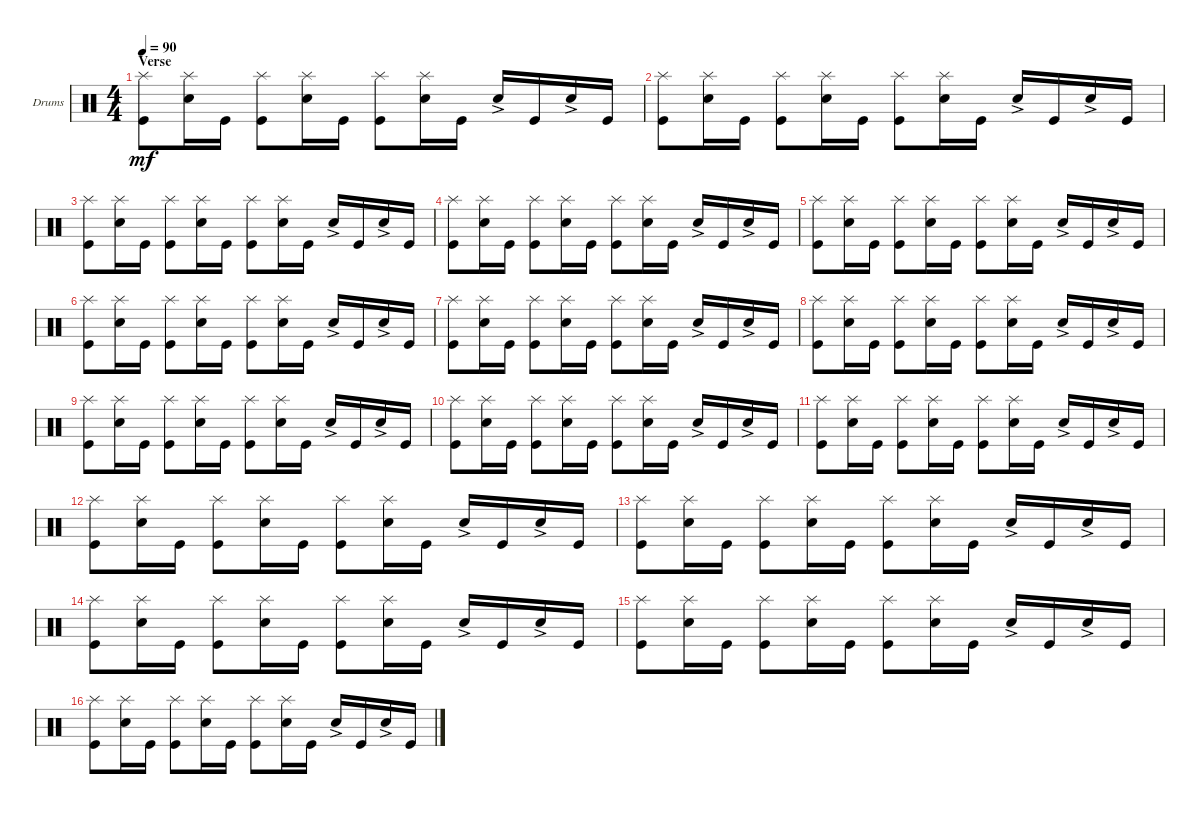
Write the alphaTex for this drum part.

\defaultSystemsLayout 4
\bracketExtendMode groupsimilarinstruments
\firstSystemTrackNameOrientation horizontal
\otherSystemsTrackNameOrientation horizontal
\track ("Drumkit" "Drums") {instrument percussion}
\staff {score}
\articulation defaults
\ts (4 4)
\section ("" "Verse")
\tempo 90
\clef neutral
\ks c
("Kick (hit)" "Splash (hit)").8{dy mf} ("Snare (hit) 2" "Splash (hit)").16 "Kick (hit)".16 ("Kick (hit)" "Splash (hit)").8 ("Snare (hit) 2" "Splash (hit)").16 "Kick (hit)".16 ("Kick (hit)" "Splash (hit)").8 ("Snare (hit) 2" "Splash (hit)").16 "Kick (hit)".16 "Snare (hit) 2"{ac}.16 "Kick (hit)".16 "Snare (hit) 2"{ac}.16 "Kick (hit)".16 |
("Kick (hit)" "Splash (hit)").8 ("Snare (hit) 2" "Splash (hit)").16 "Kick (hit)".16 ("Kick (hit)" "Splash (hit)").8 ("Snare (hit) 2" "Splash (hit)").16 "Kick (hit)".16 ("Kick (hit)" "Splash (hit)").8 ("Snare (hit) 2" "Splash (hit)").16 "Kick (hit)".16 "Snare (hit) 2"{ac}.16 "Kick (hit)".16 "Snare (hit) 2"{ac}.16 "Kick (hit)".16 |
("Kick (hit)" "Splash (hit)").8 ("Snare (hit) 2" "Splash (hit)").16 "Kick (hit)".16 ("Kick (hit)" "Splash (hit)").8 ("Snare (hit) 2" "Splash (hit)").16 "Kick (hit)".16 ("Kick (hit)" "Splash (hit)").8 ("Snare (hit) 2" "Splash (hit)").16 "Kick (hit)".16 "Snare (hit) 2"{ac}.16 "Kick (hit)".16 "Snare (hit) 2"{ac}.16 "Kick (hit)".16 |
("Kick (hit)" "Splash (hit)").8 ("Snare (hit) 2" "Splash (hit)").16 "Kick (hit)".16 ("Kick (hit)" "Splash (hit)").8 ("Snare (hit) 2" "Splash (hit)").16 "Kick (hit)".16 ("Kick (hit)" "Splash (hit)").8 ("Snare (hit) 2" "Splash (hit)").16 "Kick (hit)".16 "Snare (hit) 2"{ac}.16 "Kick (hit)".16 "Snare (hit) 2"{ac}.16 "Kick (hit)".16 |
("Kick (hit)" "Splash (hit)").8 ("Snare (hit) 2" "Splash (hit)").16 "Kick (hit)".16 ("Kick (hit)" "Splash (hit)").8 ("Snare (hit) 2" "Splash (hit)").16 "Kick (hit)".16 ("Kick (hit)" "Splash (hit)").8 ("Snare (hit) 2" "Splash (hit)").16 "Kick (hit)".16 "Snare (hit) 2"{ac}.16 "Kick (hit)".16 "Snare (hit) 2"{ac}.16 "Kick (hit)".16 |
("Kick (hit)" "Splash (hit)").8 ("Snare (hit) 2" "Splash (hit)").16 "Kick (hit)".16 ("Kick (hit)" "Splash (hit)").8 ("Snare (hit) 2" "Splash (hit)").16 "Kick (hit)".16 ("Kick (hit)" "Splash (hit)").8 ("Snare (hit) 2" "Splash (hit)").16 "Kick (hit)".16 "Snare (hit) 2"{ac}.16 "Kick (hit)".16 "Snare (hit) 2"{ac}.16 "Kick (hit)".16 |
("Kick (hit)" "Splash (hit)").8 ("Snare (hit) 2" "Splash (hit)").16 "Kick (hit)".16 ("Kick (hit)" "Splash (hit)").8 ("Snare (hit) 2" "Splash (hit)").16 "Kick (hit)".16 ("Kick (hit)" "Splash (hit)").8 ("Snare (hit) 2" "Splash (hit)").16 "Kick (hit)".16 "Snare (hit) 2"{ac}.16 "Kick (hit)".16 "Snare (hit) 2"{ac}.16 "Kick (hit)".16 |
("Kick (hit)" "Splash (hit)").8 ("Snare (hit) 2" "Splash (hit)").16 "Kick (hit)".16 ("Kick (hit)" "Splash (hit)").8 ("Snare (hit) 2" "Splash (hit)").16 "Kick (hit)".16 ("Kick (hit)" "Splash (hit)").8 ("Snare (hit) 2" "Splash (hit)").16 "Kick (hit)".16 "Snare (hit) 2"{ac}.16 "Kick (hit)".16 "Snare (hit) 2"{ac}.16 "Kick (hit)".16 |
("Kick (hit)" "Splash (hit)").8 ("Snare (hit) 2" "Splash (hit)").16 "Kick (hit)".16 ("Kick (hit)" "Splash (hit)").8 ("Snare (hit) 2" "Splash (hit)").16 "Kick (hit)".16 ("Kick (hit)" "Splash (hit)").8 ("Snare (hit) 2" "Splash (hit)").16 "Kick (hit)".16 "Snare (hit) 2"{ac}.16 "Kick (hit)".16 "Snare (hit) 2"{ac}.16 "Kick (hit)".16 |
("Kick (hit)" "Splash (hit)").8 ("Snare (hit) 2" "Splash (hit)").16 "Kick (hit)".16 ("Kick (hit)" "Splash (hit)").8 ("Snare (hit) 2" "Splash (hit)").16 "Kick (hit)".16 ("Kick (hit)" "Splash (hit)").8 ("Snare (hit) 2" "Splash (hit)").16 "Kick (hit)".16 "Snare (hit) 2"{ac}.16 "Kick (hit)".16 "Snare (hit) 2"{ac}.16 "Kick (hit)".16 |
("Kick (hit)" "Splash (hit)").8 ("Snare (hit) 2" "Splash (hit)").16 "Kick (hit)".16 ("Kick (hit)" "Splash (hit)").8 ("Snare (hit) 2" "Splash (hit)").16 "Kick (hit)".16 ("Kick (hit)" "Splash (hit)").8 ("Snare (hit) 2" "Splash (hit)").16 "Kick (hit)".16 "Snare (hit) 2"{ac}.16 "Kick (hit)".16 "Snare (hit) 2"{ac}.16 "Kick (hit)".16 |
("Kick (hit)" "Splash (hit)").8 ("Snare (hit) 2" "Splash (hit)").16 "Kick (hit)".16 ("Kick (hit)" "Splash (hit)").8 ("Snare (hit) 2" "Splash (hit)").16 "Kick (hit)".16 ("Kick (hit)" "Splash (hit)").8 ("Snare (hit) 2" "Splash (hit)").16 "Kick (hit)".16 "Snare (hit) 2"{ac}.16 "Kick (hit)".16 "Snare (hit) 2"{ac}.16 "Kick (hit)".16 |
("Kick (hit)" "Splash (hit)").8 ("Snare (hit) 2" "Splash (hit)").16 "Kick (hit)".16 ("Kick (hit)" "Splash (hit)").8 ("Snare (hit) 2" "Splash (hit)").16 "Kick (hit)".16 ("Kick (hit)" "Splash (hit)").8 ("Snare (hit) 2" "Splash (hit)").16 "Kick (hit)".16 "Snare (hit) 2"{ac}.16 "Kick (hit)".16 "Snare (hit) 2"{ac}.16 "Kick (hit)".16 |
("Kick (hit)" "Splash (hit)").8 ("Snare (hit) 2" "Splash (hit)").16 "Kick (hit)".16 ("Kick (hit)" "Splash (hit)").8 ("Snare (hit) 2" "Splash (hit)").16 "Kick (hit)".16 ("Kick (hit)" "Splash (hit)").8 ("Snare (hit) 2" "Splash (hit)").16 "Kick (hit)".16 "Snare (hit) 2"{ac}.16 "Kick (hit)".16 "Snare (hit) 2"{ac}.16 "Kick (hit)".16 |
("Kick (hit)" "Splash (hit)").8 ("Snare (hit) 2" "Splash (hit)").16 "Kick (hit)".16 ("Kick (hit)" "Splash (hit)").8 ("Snare (hit) 2" "Splash (hit)").16 "Kick (hit)".16 ("Kick (hit)" "Splash (hit)").8 ("Snare (hit) 2" "Splash (hit)").16 "Kick (hit)".16 "Snare (hit) 2"{ac}.16 "Kick (hit)".16 "Snare (hit) 2"{ac}.16 "Kick (hit)".16 |
("Kick (hit)" "Splash (hit)").8 ("Snare (hit) 2" "Splash (hit)").16 "Kick (hit)".16 ("Kick (hit)" "Splash (hit)").8 ("Snare (hit) 2" "Splash (hit)").16 "Kick (hit)".16 ("Kick (hit)" "Splash (hit)").8 ("Snare (hit) 2" "Splash (hit)").16 "Kick (hit)".16 "Snare (hit) 2"{ac}.16 "Kick (hit)".16 "Snare (hit) 2"{ac}.16 "Kick (hit)".16
